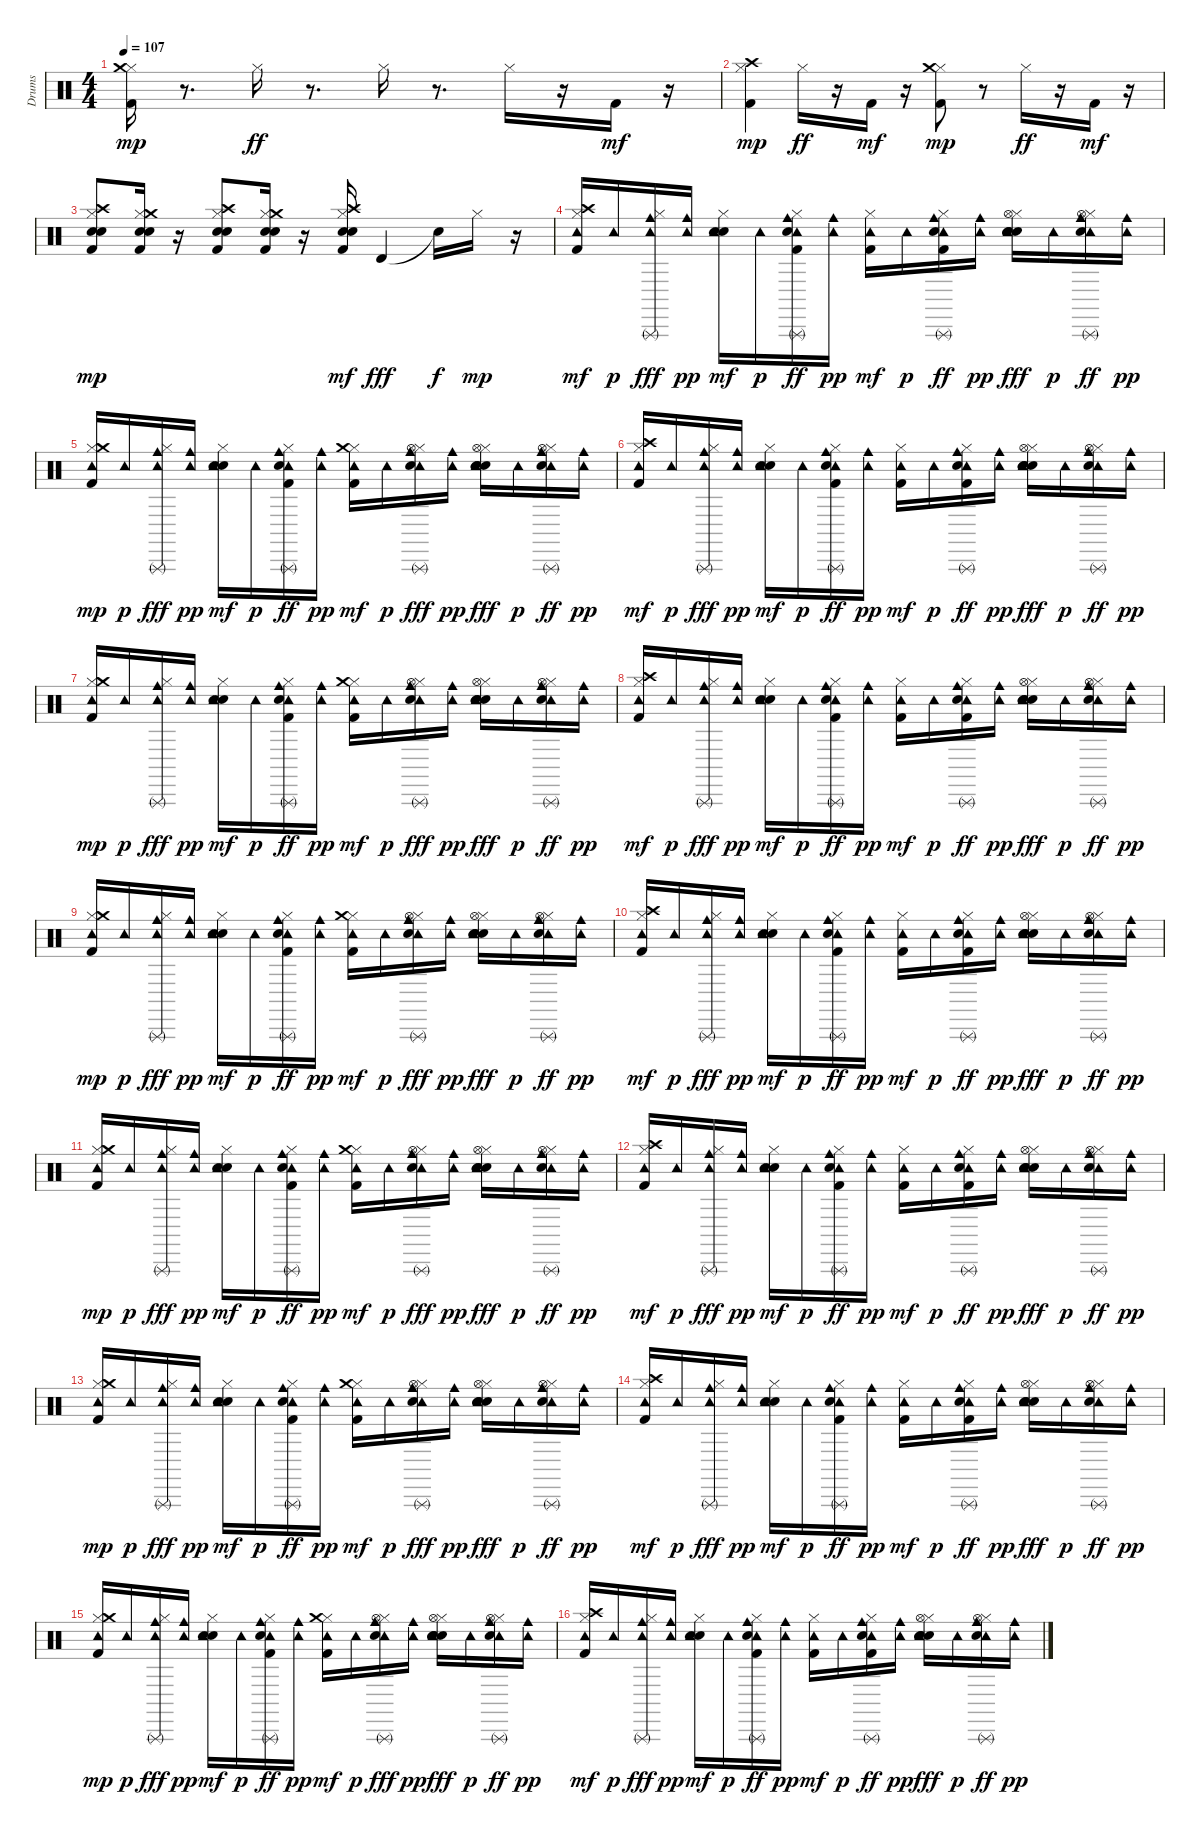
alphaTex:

\track ("Drums" "Drums") {instrument percussion}
\staff {score}
\articulation defaults
\ts (4 4)
\tempo 107
\clef neutral
\ks c
("Kick (hit) 2" "Hi-Hat (closed)" "Crash medium (hit)").16{dy mp} r.8{d} "Hi-Hat (closed)".16{dy ff} r.8{d} "Hi-Hat (closed)".16 r.8{d} "Hi-Hat (closed)".16 r.16 "Kick (hit) 2".16{dy mf} r.16 |
("Kick (hit) 2" "Hi-Hat (closed)" "Crash high (hit)").4{dy mp} "Hi-Hat (closed)".16{dy ff} r.16 "Kick (hit) 2".16{dy mf} r.16 ("Kick (hit) 2" "Hi-Hat (closed)" "Crash medium (hit)").8{dy mp} r.8 "Hi-Hat (closed)".16{dy ff} r.16 "Kick (hit) 2".16{dy mf} r.16 |
("Kick (hit) 2" "Hand Clap (hit)" "Electric Snare (hit)" "Hi-Hat (closed)" "Crash high (hit)").8{dy mp} ("Kick (hit) 2" "Hand Clap (hit)" "Electric Snare (hit)" "Hi-Hat (closed)" "Crash medium (hit)").16 r.16 ("Kick (hit) 2" "Hand Clap (hit)" "Electric Snare (hit)" "Hi-Hat (closed)" "Crash high (hit)").8 ("Kick (hit) 2" "Hand Clap (hit)" "Electric Snare (hit)" "Hi-Hat (closed)" "Crash medium (hit)").16 r.16 ("Kick (hit) 2" "Hand Clap (hit)" "Electric Snare (hit)" "Hi-Hat (closed)" "Crash high (hit)").16{dy mf} "Timbale high (hit)".4{dy fff} "Snare (hit)"{t}.16{dy f} "Hi-Hat (closed)".16{dy mp} r.16 |
("Kick (hit) 2" "Hi-Hat (closed)" "Crash high (hit)" "Tambourine (hit)").16{dy mf} "Tambourine (hit)".16{dy p} ("Hi-Hat (closed)" "Tambourine (hit)" "Cowbell medium (hit)" "Triangle (rnute)").16{dy fff} ("Tambourine (hit)" "Cowbell medium (hit)").16{dy pp} ("Hand Clap (hit)" "Electric Snare (hit)" "Hi-Hat (closed)" "Tambourine (hit)").16{dy mf} "Tambourine (hit)".16{dy p} ("Kick (hit) 2" "Hi-Hat (closed)" "Tambourine (hit)" "Cowbell medium (hit)" "Triangle (rnute)" "Metronome (bell)").16{dy ff} ("Tambourine (hit)" "Cowbell medium (hit)").16{dy pp} ("Kick (hit) 2" "Hi-Hat (closed)" "Tambourine (hit)").16{dy mf} "Tambourine (hit)".16{dy p} ("Kick (hit) 2" "Hi-Hat (closed)" "Tambourine (hit)" "Cowbell medium (hit)" "Triangle (rnute)" "Metronome (bell)").16{dy ff} ("Tambourine (hit)" "Cowbell medium (hit)").16{dy pp} ("Hand Clap (hit)" "Electric Snare (hit)" "Hi-Hat (closed)" "Tambourine (hit)" "Metronome (bell)" "Hi-Hat (open)").16{dy fff} "Tambourine (hit)".16{dy p} ("Hi-Hat (closed)" "Tambourine (hit)" "Cowbell medium (hit)" "Triangle (rnute)" "Metronome (bell)" "Hi-Hat (open)").16{dy ff} ("Tambourine (hit)" "Cowbell medium (hit)").16{dy pp} |
("Kick (hit) 2" "Hi-Hat (closed)" "Tambourine (hit)" "Crash medium (hit)").16{dy mp} "Tambourine (hit)".16{dy p} ("Hi-Hat (closed)" "Tambourine (hit)" "Cowbell medium (hit)" "Triangle (rnute)").16{dy fff} ("Tambourine (hit)" "Cowbell medium (hit)").16{dy pp} ("Hand Clap (hit)" "Electric Snare (hit)" "Hi-Hat (closed)" "Tambourine (hit)").16{dy mf} "Tambourine (hit)".16{dy p} ("Kick (hit) 2" "Hi-Hat (closed)" "Tambourine (hit)" "Cowbell medium (hit)" "Triangle (rnute)" "Metronome (bell)").16{dy ff} ("Tambourine (hit)" "Cowbell medium (hit)").16{dy pp} ("Kick (hit) 2" "Hi-Hat (closed)" "Tambourine (hit)" "Crash medium (hit)").16{dy mf} "Tambourine (hit)".16{dy p} ("Hi-Hat (closed)" "Tambourine (hit)" "Cowbell medium (hit)" "Triangle (rnute)" "Metronome (bell)" "Hi-Hat (open)").16{dy fff} ("Tambourine (hit)" "Cowbell medium (hit)").16{dy pp} ("Hand Clap (hit)" "Electric Snare (hit)" "Hi-Hat (closed)" "Tambourine (hit)" "Metronome (bell)" "Hi-Hat (open)").16{dy fff} "Tambourine (hit)".16{dy p} ("Hi-Hat (closed)" "Tambourine (hit)" "Cowbell medium (hit)" "Triangle (rnute)" "Metronome (bell)" "Hi-Hat (open)").16{dy ff} ("Tambourine (hit)" "Cowbell medium (hit)").16{dy pp} |
("Kick (hit) 2" "Hi-Hat (closed)" "Crash high (hit)" "Tambourine (hit)").16{dy mf} "Tambourine (hit)".16{dy p} ("Hi-Hat (closed)" "Tambourine (hit)" "Cowbell medium (hit)" "Triangle (rnute)").16{dy fff} ("Tambourine (hit)" "Cowbell medium (hit)").16{dy pp} ("Hand Clap (hit)" "Electric Snare (hit)" "Hi-Hat (closed)" "Tambourine (hit)").16{dy mf} "Tambourine (hit)".16{dy p} ("Kick (hit) 2" "Hi-Hat (closed)" "Tambourine (hit)" "Cowbell medium (hit)" "Triangle (rnute)" "Metronome (bell)").16{dy ff} ("Tambourine (hit)" "Cowbell medium (hit)").16{dy pp} ("Kick (hit) 2" "Hi-Hat (closed)" "Tambourine (hit)").16{dy mf} "Tambourine (hit)".16{dy p} ("Kick (hit) 2" "Hi-Hat (closed)" "Tambourine (hit)" "Cowbell medium (hit)" "Triangle (rnute)" "Metronome (bell)").16{dy ff} ("Tambourine (hit)" "Cowbell medium (hit)").16{dy pp} ("Hand Clap (hit)" "Electric Snare (hit)" "Hi-Hat (closed)" "Tambourine (hit)" "Metronome (bell)" "Hi-Hat (open)").16{dy fff} "Tambourine (hit)".16{dy p} ("Hi-Hat (closed)" "Tambourine (hit)" "Cowbell medium (hit)" "Triangle (rnute)" "Metronome (bell)" "Hi-Hat (open)").16{dy ff} ("Tambourine (hit)" "Cowbell medium (hit)").16{dy pp} |
("Kick (hit) 2" "Hi-Hat (closed)" "Tambourine (hit)" "Crash medium (hit)").16{dy mp} "Tambourine (hit)".16{dy p} ("Hi-Hat (closed)" "Tambourine (hit)" "Cowbell medium (hit)" "Triangle (rnute)").16{dy fff} ("Tambourine (hit)" "Cowbell medium (hit)").16{dy pp} ("Hand Clap (hit)" "Electric Snare (hit)" "Hi-Hat (closed)" "Tambourine (hit)").16{dy mf} "Tambourine (hit)".16{dy p} ("Kick (hit) 2" "Hi-Hat (closed)" "Tambourine (hit)" "Cowbell medium (hit)" "Triangle (rnute)" "Metronome (bell)").16{dy ff} ("Tambourine (hit)" "Cowbell medium (hit)").16{dy pp} ("Kick (hit) 2" "Hi-Hat (closed)" "Tambourine (hit)" "Crash medium (hit)").16{dy mf} "Tambourine (hit)".16{dy p} ("Hi-Hat (closed)" "Tambourine (hit)" "Cowbell medium (hit)" "Triangle (rnute)" "Metronome (bell)" "Hi-Hat (open)").16{dy fff} ("Tambourine (hit)" "Cowbell medium (hit)").16{dy pp} ("Hand Clap (hit)" "Electric Snare (hit)" "Hi-Hat (closed)" "Tambourine (hit)" "Metronome (bell)" "Hi-Hat (open)").16{dy fff} "Tambourine (hit)".16{dy p} ("Hi-Hat (closed)" "Tambourine (hit)" "Cowbell medium (hit)" "Triangle (rnute)" "Metronome (bell)" "Hi-Hat (open)").16{dy ff} ("Tambourine (hit)" "Cowbell medium (hit)").16{dy pp} |
("Kick (hit) 2" "Hi-Hat (closed)" "Crash high (hit)" "Tambourine (hit)").16{dy mf} "Tambourine (hit)".16{dy p} ("Hi-Hat (closed)" "Tambourine (hit)" "Cowbell medium (hit)" "Triangle (rnute)").16{dy fff} ("Tambourine (hit)" "Cowbell medium (hit)").16{dy pp} ("Hand Clap (hit)" "Electric Snare (hit)" "Hi-Hat (closed)" "Tambourine (hit)").16{dy mf} "Tambourine (hit)".16{dy p} ("Kick (hit) 2" "Hi-Hat (closed)" "Tambourine (hit)" "Cowbell medium (hit)" "Triangle (rnute)" "Metronome (bell)").16{dy ff} ("Tambourine (hit)" "Cowbell medium (hit)").16{dy pp} ("Kick (hit) 2" "Hi-Hat (closed)" "Tambourine (hit)").16{dy mf} "Tambourine (hit)".16{dy p} ("Kick (hit) 2" "Hi-Hat (closed)" "Tambourine (hit)" "Cowbell medium (hit)" "Triangle (rnute)" "Metronome (bell)").16{dy ff} ("Tambourine (hit)" "Cowbell medium (hit)").16{dy pp} ("Hand Clap (hit)" "Electric Snare (hit)" "Hi-Hat (closed)" "Tambourine (hit)" "Metronome (bell)" "Hi-Hat (open)").16{dy fff} "Tambourine (hit)".16{dy p} ("Hi-Hat (closed)" "Tambourine (hit)" "Cowbell medium (hit)" "Triangle (rnute)" "Metronome (bell)" "Hi-Hat (open)").16{dy ff} ("Tambourine (hit)" "Cowbell medium (hit)").16{dy pp} |
("Kick (hit) 2" "Hi-Hat (closed)" "Tambourine (hit)" "Crash medium (hit)").16{dy mp} "Tambourine (hit)".16{dy p} ("Hi-Hat (closed)" "Tambourine (hit)" "Cowbell medium (hit)" "Triangle (rnute)").16{dy fff} ("Tambourine (hit)" "Cowbell medium (hit)").16{dy pp} ("Hand Clap (hit)" "Electric Snare (hit)" "Hi-Hat (closed)" "Tambourine (hit)").16{dy mf} "Tambourine (hit)".16{dy p} ("Kick (hit) 2" "Hi-Hat (closed)" "Tambourine (hit)" "Cowbell medium (hit)" "Triangle (rnute)" "Metronome (bell)").16{dy ff} ("Tambourine (hit)" "Cowbell medium (hit)").16{dy pp} ("Kick (hit) 2" "Hi-Hat (closed)" "Tambourine (hit)" "Crash medium (hit)").16{dy mf} "Tambourine (hit)".16{dy p} ("Hi-Hat (closed)" "Tambourine (hit)" "Cowbell medium (hit)" "Triangle (rnute)" "Metronome (bell)" "Hi-Hat (open)").16{dy fff} ("Tambourine (hit)" "Cowbell medium (hit)").16{dy pp} ("Hand Clap (hit)" "Electric Snare (hit)" "Hi-Hat (closed)" "Tambourine (hit)" "Metronome (bell)" "Hi-Hat (open)").16{dy fff} "Tambourine (hit)".16{dy p} ("Hi-Hat (closed)" "Tambourine (hit)" "Cowbell medium (hit)" "Triangle (rnute)" "Metronome (bell)" "Hi-Hat (open)").16{dy ff} ("Tambourine (hit)" "Cowbell medium (hit)").16{dy pp} |
("Kick (hit) 2" "Hi-Hat (closed)" "Crash high (hit)" "Tambourine (hit)").16{dy mf} "Tambourine (hit)".16{dy p} ("Hi-Hat (closed)" "Tambourine (hit)" "Cowbell medium (hit)" "Triangle (rnute)").16{dy fff} ("Tambourine (hit)" "Cowbell medium (hit)").16{dy pp} ("Hand Clap (hit)" "Electric Snare (hit)" "Hi-Hat (closed)" "Tambourine (hit)").16{dy mf} "Tambourine (hit)".16{dy p} ("Kick (hit) 2" "Hi-Hat (closed)" "Tambourine (hit)" "Cowbell medium (hit)" "Triangle (rnute)" "Metronome (bell)").16{dy ff} ("Tambourine (hit)" "Cowbell medium (hit)").16{dy pp} ("Kick (hit) 2" "Hi-Hat (closed)" "Tambourine (hit)").16{dy mf} "Tambourine (hit)".16{dy p} ("Kick (hit) 2" "Hi-Hat (closed)" "Tambourine (hit)" "Cowbell medium (hit)" "Triangle (rnute)" "Metronome (bell)").16{dy ff} ("Tambourine (hit)" "Cowbell medium (hit)").16{dy pp} ("Hand Clap (hit)" "Electric Snare (hit)" "Hi-Hat (closed)" "Tambourine (hit)" "Metronome (bell)" "Hi-Hat (open)").16{dy fff} "Tambourine (hit)".16{dy p} ("Hi-Hat (closed)" "Tambourine (hit)" "Cowbell medium (hit)" "Triangle (rnute)" "Metronome (bell)" "Hi-Hat (open)").16{dy ff} ("Tambourine (hit)" "Cowbell medium (hit)").16{dy pp} |
("Kick (hit) 2" "Hi-Hat (closed)" "Tambourine (hit)" "Crash medium (hit)").16{dy mp} "Tambourine (hit)".16{dy p} ("Hi-Hat (closed)" "Tambourine (hit)" "Cowbell medium (hit)" "Triangle (rnute)").16{dy fff} ("Tambourine (hit)" "Cowbell medium (hit)").16{dy pp} ("Hand Clap (hit)" "Electric Snare (hit)" "Hi-Hat (closed)" "Tambourine (hit)").16{dy mf} "Tambourine (hit)".16{dy p} ("Kick (hit) 2" "Hi-Hat (closed)" "Tambourine (hit)" "Cowbell medium (hit)" "Triangle (rnute)" "Metronome (bell)").16{dy ff} ("Tambourine (hit)" "Cowbell medium (hit)").16{dy pp} ("Kick (hit) 2" "Hi-Hat (closed)" "Tambourine (hit)" "Crash medium (hit)").16{dy mf} "Tambourine (hit)".16{dy p} ("Hi-Hat (closed)" "Tambourine (hit)" "Cowbell medium (hit)" "Triangle (rnute)" "Metronome (bell)" "Hi-Hat (open)").16{dy fff} ("Tambourine (hit)" "Cowbell medium (hit)").16{dy pp} ("Hand Clap (hit)" "Electric Snare (hit)" "Hi-Hat (closed)" "Tambourine (hit)" "Metronome (bell)" "Hi-Hat (open)").16{dy fff} "Tambourine (hit)".16{dy p} ("Hi-Hat (closed)" "Tambourine (hit)" "Cowbell medium (hit)" "Triangle (rnute)" "Metronome (bell)" "Hi-Hat (open)").16{dy ff} ("Tambourine (hit)" "Cowbell medium (hit)").16{dy pp} |
("Kick (hit) 2" "Hi-Hat (closed)" "Crash high (hit)" "Tambourine (hit)").16{dy mf} "Tambourine (hit)".16{dy p} ("Hi-Hat (closed)" "Tambourine (hit)" "Cowbell medium (hit)" "Triangle (rnute)").16{dy fff} ("Tambourine (hit)" "Cowbell medium (hit)").16{dy pp} ("Hand Clap (hit)" "Electric Snare (hit)" "Hi-Hat (closed)" "Tambourine (hit)").16{dy mf} "Tambourine (hit)".16{dy p} ("Kick (hit) 2" "Hi-Hat (closed)" "Tambourine (hit)" "Cowbell medium (hit)" "Triangle (rnute)" "Metronome (bell)").16{dy ff} ("Tambourine (hit)" "Cowbell medium (hit)").16{dy pp} ("Kick (hit) 2" "Hi-Hat (closed)" "Tambourine (hit)").16{dy mf} "Tambourine (hit)".16{dy p} ("Kick (hit) 2" "Hi-Hat (closed)" "Tambourine (hit)" "Cowbell medium (hit)" "Triangle (rnute)" "Metronome (bell)").16{dy ff} ("Tambourine (hit)" "Cowbell medium (hit)").16{dy pp} ("Hand Clap (hit)" "Electric Snare (hit)" "Hi-Hat (closed)" "Tambourine (hit)" "Metronome (bell)" "Hi-Hat (open)").16{dy fff} "Tambourine (hit)".16{dy p} ("Hi-Hat (closed)" "Tambourine (hit)" "Cowbell medium (hit)" "Triangle (rnute)" "Metronome (bell)" "Hi-Hat (open)").16{dy ff} ("Tambourine (hit)" "Cowbell medium (hit)").16{dy pp} |
("Kick (hit) 2" "Hi-Hat (closed)" "Tambourine (hit)" "Crash medium (hit)").16{dy mp} "Tambourine (hit)".16{dy p} ("Hi-Hat (closed)" "Tambourine (hit)" "Cowbell medium (hit)" "Triangle (rnute)").16{dy fff} ("Tambourine (hit)" "Cowbell medium (hit)").16{dy pp} ("Hand Clap (hit)" "Electric Snare (hit)" "Hi-Hat (closed)" "Tambourine (hit)").16{dy mf} "Tambourine (hit)".16{dy p} ("Kick (hit) 2" "Hi-Hat (closed)" "Tambourine (hit)" "Cowbell medium (hit)" "Triangle (rnute)" "Metronome (bell)").16{dy ff} ("Tambourine (hit)" "Cowbell medium (hit)").16{dy pp} ("Kick (hit) 2" "Hi-Hat (closed)" "Tambourine (hit)" "Crash medium (hit)").16{dy mf} "Tambourine (hit)".16{dy p} ("Hi-Hat (closed)" "Tambourine (hit)" "Cowbell medium (hit)" "Triangle (rnute)" "Metronome (bell)" "Hi-Hat (open)").16{dy fff} ("Tambourine (hit)" "Cowbell medium (hit)").16{dy pp} ("Hand Clap (hit)" "Electric Snare (hit)" "Hi-Hat (closed)" "Tambourine (hit)" "Metronome (bell)" "Hi-Hat (open)").16{dy fff} "Tambourine (hit)".16{dy p} ("Hi-Hat (closed)" "Tambourine (hit)" "Cowbell medium (hit)" "Triangle (rnute)" "Metronome (bell)" "Hi-Hat (open)").16{dy ff} ("Tambourine (hit)" "Cowbell medium (hit)").16{dy pp} |
("Kick (hit) 2" "Hi-Hat (closed)" "Crash high (hit)" "Tambourine (hit)").16{dy mf} "Tambourine (hit)".16{dy p} ("Hi-Hat (closed)" "Tambourine (hit)" "Cowbell medium (hit)" "Triangle (rnute)").16{dy fff} ("Tambourine (hit)" "Cowbell medium (hit)").16{dy pp} ("Hand Clap (hit)" "Electric Snare (hit)" "Hi-Hat (closed)" "Tambourine (hit)").16{dy mf} "Tambourine (hit)".16{dy p} ("Kick (hit) 2" "Hi-Hat (closed)" "Tambourine (hit)" "Cowbell medium (hit)" "Triangle (rnute)" "Metronome (bell)").16{dy ff} ("Tambourine (hit)" "Cowbell medium (hit)").16{dy pp} ("Kick (hit) 2" "Hi-Hat (closed)" "Tambourine (hit)").16{dy mf} "Tambourine (hit)".16{dy p} ("Kick (hit) 2" "Hi-Hat (closed)" "Tambourine (hit)" "Cowbell medium (hit)" "Triangle (rnute)" "Metronome (bell)").16{dy ff} ("Tambourine (hit)" "Cowbell medium (hit)").16{dy pp} ("Hand Clap (hit)" "Electric Snare (hit)" "Hi-Hat (closed)" "Tambourine (hit)" "Metronome (bell)" "Hi-Hat (open)").16{dy fff} "Tambourine (hit)".16{dy p} ("Hi-Hat (closed)" "Tambourine (hit)" "Cowbell medium (hit)" "Triangle (rnute)" "Metronome (bell)" "Hi-Hat (open)").16{dy ff} ("Tambourine (hit)" "Cowbell medium (hit)").16{dy pp} |
("Kick (hit) 2" "Hi-Hat (closed)" "Tambourine (hit)" "Crash medium (hit)").16{dy mp} "Tambourine (hit)".16{dy p} ("Hi-Hat (closed)" "Tambourine (hit)" "Cowbell medium (hit)" "Triangle (rnute)").16{dy fff} ("Tambourine (hit)" "Cowbell medium (hit)").16{dy pp} ("Hand Clap (hit)" "Electric Snare (hit)" "Hi-Hat (closed)" "Tambourine (hit)").16{dy mf} "Tambourine (hit)".16{dy p} ("Kick (hit) 2" "Hi-Hat (closed)" "Tambourine (hit)" "Cowbell medium (hit)" "Triangle (rnute)" "Metronome (bell)").16{dy ff} ("Tambourine (hit)" "Cowbell medium (hit)").16{dy pp} ("Kick (hit) 2" "Hi-Hat (closed)" "Tambourine (hit)" "Crash medium (hit)").16{dy mf} "Tambourine (hit)".16{dy p} ("Hi-Hat (closed)" "Tambourine (hit)" "Cowbell medium (hit)" "Triangle (rnute)" "Metronome (bell)" "Hi-Hat (open)").16{dy fff} ("Tambourine (hit)" "Cowbell medium (hit)").16{dy pp} ("Hand Clap (hit)" "Electric Snare (hit)" "Hi-Hat (closed)" "Tambourine (hit)" "Metronome (bell)" "Hi-Hat (open)").16{dy fff} "Tambourine (hit)".16{dy p} ("Hi-Hat (closed)" "Tambourine (hit)" "Cowbell medium (hit)" "Triangle (rnute)" "Metronome (bell)" "Hi-Hat (open)").16{dy ff} ("Tambourine (hit)" "Cowbell medium (hit)").16{dy pp} |
("Kick (hit) 2" "Hi-Hat (closed)" "Crash high (hit)" "Tambourine (hit)").16{dy mf} "Tambourine (hit)".16{dy p} ("Hi-Hat (closed)" "Tambourine (hit)" "Cowbell medium (hit)" "Triangle (rnute)").16{dy fff} ("Tambourine (hit)" "Cowbell medium (hit)").16{dy pp} ("Hand Clap (hit)" "Electric Snare (hit)" "Hi-Hat (closed)" "Tambourine (hit)").16{dy mf} "Tambourine (hit)".16{dy p} ("Kick (hit) 2" "Hi-Hat (closed)" "Tambourine (hit)" "Cowbell medium (hit)" "Triangle (rnute)" "Metronome (bell)").16{dy ff} ("Tambourine (hit)" "Cowbell medium (hit)").16{dy pp} ("Kick (hit) 2" "Hi-Hat (closed)" "Tambourine (hit)").16{dy mf} "Tambourine (hit)".16{dy p} ("Kick (hit) 2" "Hi-Hat (closed)" "Tambourine (hit)" "Cowbell medium (hit)" "Triangle (rnute)" "Metronome (bell)").16{dy ff} ("Tambourine (hit)" "Cowbell medium (hit)").16{dy pp} ("Hand Clap (hit)" "Electric Snare (hit)" "Hi-Hat (closed)" "Tambourine (hit)" "Metronome (bell)" "Hi-Hat (open)").16{dy fff} "Tambourine (hit)".16{dy p} ("Hi-Hat (closed)" "Tambourine (hit)" "Cowbell medium (hit)" "Triangle (rnute)" "Metronome (bell)" "Hi-Hat (open)").16{dy ff} ("Tambourine (hit)" "Cowbell medium (hit)").16{dy pp}
